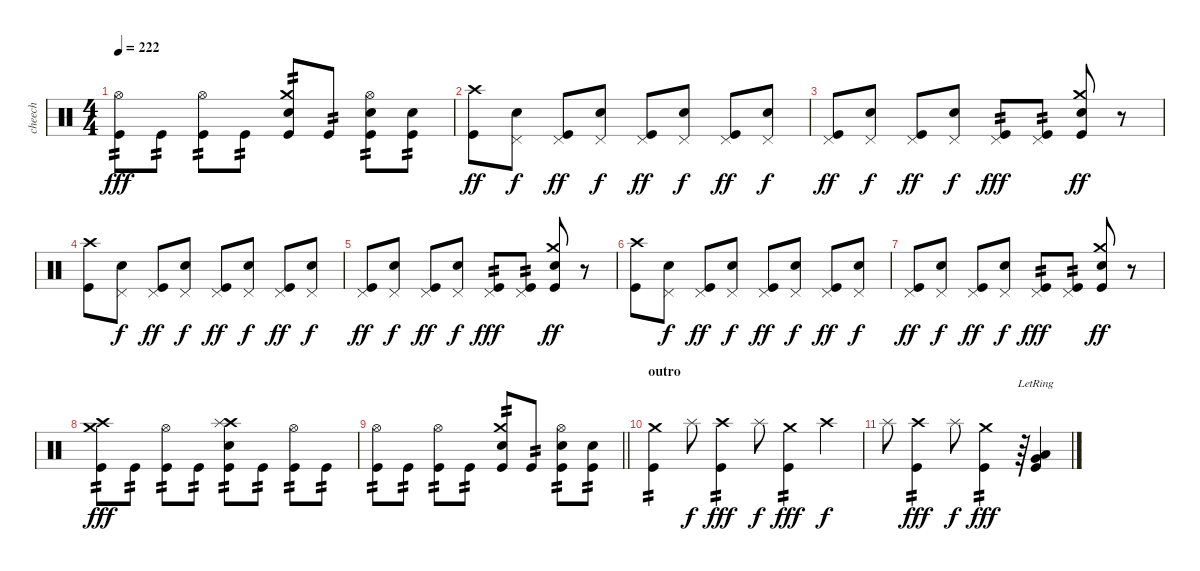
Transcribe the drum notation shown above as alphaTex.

\track ("cheech" "cheech") {instrument percussion}
\staff {score}
\articulation defaults
\ts (4 4)
\tempo 222
\clef neutral
\ks c
("Hi-Hat (open)" "Kick (hit)").8{tp 2 dy fff} "Kick (hit)".8{tp 2} ("Hi-Hat (open)" "Kick (hit)").8{tp 2} "Kick (hit)".8{tp 2} ("Crash medium (hit)" "Electric Snare (hit)" "Kick (hit)").8{tp 2} "Kick (hit)".8{tp 2} ("Hi-Hat (open)" "Electric Snare (hit)" "Kick (hit)").8{tp 2} ("Electric Snare (hit)" "Kick (hit)").8{tp 2} |
("Crash high (hit)" "Kick (hit)").8{dy ff} ("Pedal Hi-Hat (hit)" "Electric Snare (hit)").8{dy f} ("Pedal Hi-Hat (hit)" "Kick (hit)").8{dy ff} ("Pedal Hi-Hat (hit)" "Electric Snare (hit)").8{dy f} ("Pedal Hi-Hat (hit)" "Kick (hit)").8{dy ff} ("Pedal Hi-Hat (hit)" "Electric Snare (hit)").8{dy f} ("Pedal Hi-Hat (hit)" "Kick (hit)").8{dy ff} ("Pedal Hi-Hat (hit)" "Electric Snare (hit)").8{dy f} |
("Pedal Hi-Hat (hit)" "Kick (hit)").8{dy ff} ("Pedal Hi-Hat (hit)" "Electric Snare (hit)").8{dy f} ("Pedal Hi-Hat (hit)" "Kick (hit)").8{dy ff} ("Pedal Hi-Hat (hit)" "Electric Snare (hit)").8{dy f} ("Pedal Hi-Hat (hit)" "Kick (hit)").8{tp 2 dy fff} ("Pedal Hi-Hat (hit)" "Kick (hit)").8{tp 2} ("Crash medium (hit)" "Electric Snare (hit)" "Kick (hit)").8{dy ff} r.8 |
("Crash high (hit)" "Kick (hit)").8 ("Pedal Hi-Hat (hit)" "Electric Snare (hit)").8{dy f} ("Pedal Hi-Hat (hit)" "Kick (hit)").8{dy ff} ("Pedal Hi-Hat (hit)" "Electric Snare (hit)").8{dy f} ("Pedal Hi-Hat (hit)" "Kick (hit)").8{dy ff} ("Pedal Hi-Hat (hit)" "Electric Snare (hit)").8{dy f} ("Pedal Hi-Hat (hit)" "Kick (hit)").8{dy ff} ("Pedal Hi-Hat (hit)" "Electric Snare (hit)").8{dy f} |
("Pedal Hi-Hat (hit)" "Kick (hit)").8{dy ff} ("Pedal Hi-Hat (hit)" "Electric Snare (hit)").8{dy f} ("Pedal Hi-Hat (hit)" "Kick (hit)").8{dy ff} ("Pedal Hi-Hat (hit)" "Electric Snare (hit)").8{dy f} ("Pedal Hi-Hat (hit)" "Kick (hit)").8{tp 2 dy fff} ("Pedal Hi-Hat (hit)" "Kick (hit)").8{tp 2} ("Crash medium (hit)" "Electric Snare (hit)" "Kick (hit)").8{dy ff} r.8 |
("Crash high (hit)" "Kick (hit)").8 ("Pedal Hi-Hat (hit)" "Electric Snare (hit)").8{dy f} ("Pedal Hi-Hat (hit)" "Kick (hit)").8{dy ff} ("Pedal Hi-Hat (hit)" "Electric Snare (hit)").8{dy f} ("Pedal Hi-Hat (hit)" "Kick (hit)").8{dy ff} ("Pedal Hi-Hat (hit)" "Electric Snare (hit)").8{dy f} ("Pedal Hi-Hat (hit)" "Kick (hit)").8{dy ff} ("Pedal Hi-Hat (hit)" "Electric Snare (hit)").8{dy f} |
("Pedal Hi-Hat (hit)" "Kick (hit)").8{dy ff} ("Pedal Hi-Hat (hit)" "Electric Snare (hit)").8{dy f} ("Pedal Hi-Hat (hit)" "Kick (hit)").8{dy ff} ("Pedal Hi-Hat (hit)" "Electric Snare (hit)").8{dy f} ("Pedal Hi-Hat (hit)" "Kick (hit)").8{tp 2 dy fff} ("Pedal Hi-Hat (hit)" "Kick (hit)").8{tp 2} ("Crash medium (hit)" "Electric Snare (hit)" "Kick (hit)").8{dy ff} r.8 |
("Crash medium (hit)" "Crash high (hit)" "Kick (hit)").8{tp 2 dy fff} "Kick (hit)".8{tp 2} ("Hi-Hat (open)" "Kick (hit)").8{tp 2} "Kick (hit)".8{tp 2} ("Crash high (hit)" "Splash (hit)" "Electric Snare (hit)" "Kick (hit)").8{tp 2} "Kick (hit)".8{tp 2} ("Hi-Hat (open)" "Kick (hit)").8{tp 2} "Kick (hit)".8{tp 2} |
\barLineRight lightlight
("Hi-Hat (open)" "Kick (hit)").8{tp 2} "Kick (hit)".8{tp 2} ("Hi-Hat (open)" "Kick (hit)").8{tp 2} "Kick (hit)".8{tp 2} ("Crash medium (hit)" "Electric Snare (hit)" "Kick (hit)").8{tp 2} "Kick (hit)".8{tp 2} ("Hi-Hat (open)" "Electric Snare (hit)" "Kick (hit)").8{tp 2} ("Electric Snare (hit)" "Kick (hit)").8{tp 2} |
\section ("" "outro")
("Crash medium (hit)" "Kick (hit)").4{tp 2} "Splash (hit)".8{dy f} ("Crash high (hit)" "Kick (hit)").4{tp 2 dy fff} "Splash (hit)".8{dy f} ("Crash medium (hit)" "Kick (hit)").4{tp 2 dy fff} "Crash high (hit)".4{dy f} |
"Splash (hit)".8 ("Crash high (hit)" "Kick (hit)").4{tp 2 dy fff} "Splash (hit)".8{dy f} ("Crash medium (hit)" "Kick (hit)").4{tp 2 dy fff} r.64 ("Very Low Tom (hit)"{lr} "Low Floor Tom (hit)"{lr} "Kick (hit)"{lr}).4
